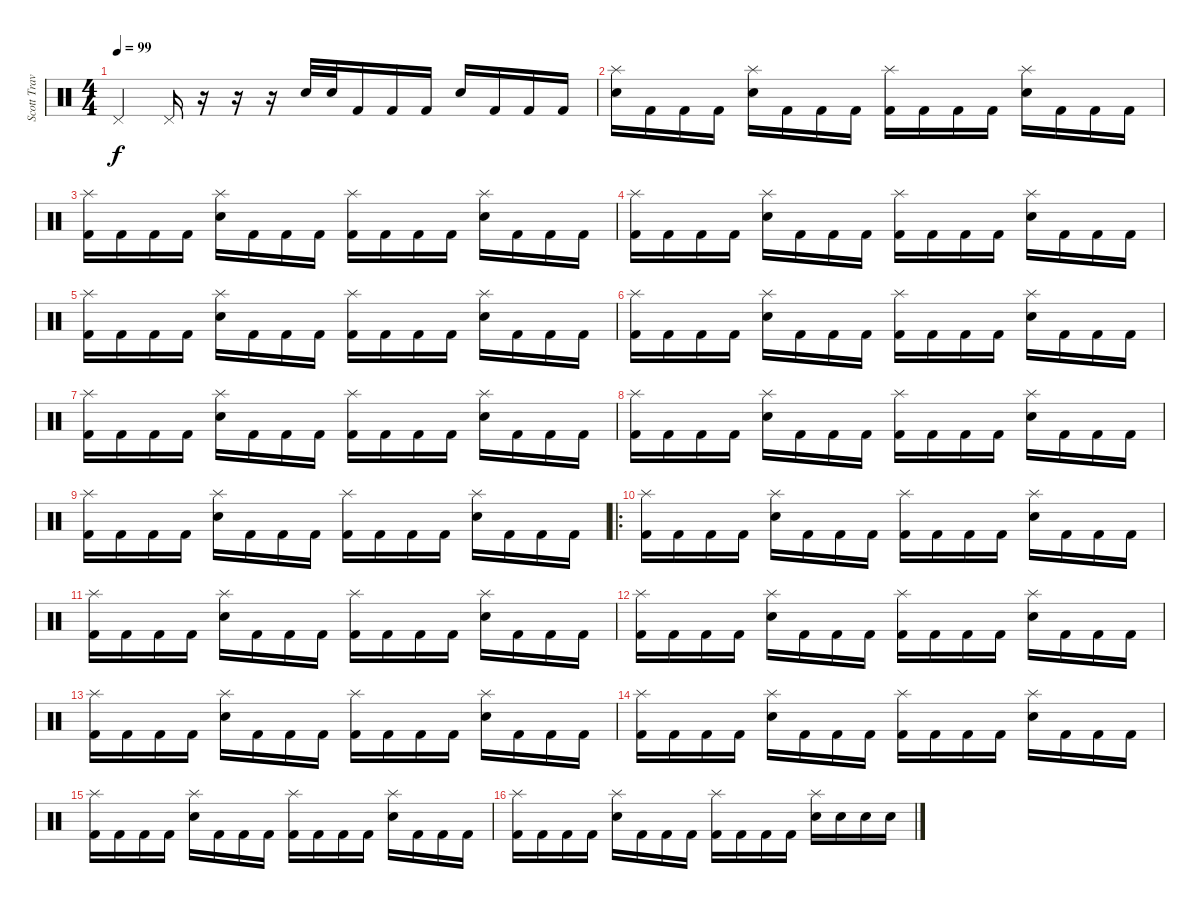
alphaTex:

\track ("Scott Travis" "Scott Trav") {instrument percussion}
\staff {score}
\articulation defaults
\ts (4 4)
\tempo 99
\clef neutral
\ks c "Pedal Hi-Hat (hit)".4{dy f} "Pedal Hi-Hat (hit)".16
r.16 r.16 r.16 "Electric Snare (hit)".32 "Electric Snare (hit)".32 "Kick (hit) 2".16 "Kick (hit) 2".16 "Kick (hit) 2".16 "Electric Snare (hit)".16 "Kick (hit) 2".16 "Kick (hit) 2".16 "Kick (hit) 2".16 |
("Splash (hit)" "Electric Snare (hit)").16 "Kick (hit) 2".16 "Kick (hit) 2".16 "Kick (hit) 2".16 ("Splash (hit)" "Electric Snare (hit)").16 "Kick (hit) 2".16 "Kick (hit) 2".16 "Kick (hit) 2".16 ("Splash (hit)" "Kick (hit) 2").16 "Kick (hit) 2".16 "Kick (hit) 2".16 "Kick (hit) 2".16 ("Splash (hit)" "Electric Snare (hit)").16 "Kick (hit) 2".16 "Kick (hit) 2".16 "Kick (hit) 2".16 |
("Splash (hit)" "Kick (hit) 2").16 "Kick (hit) 2".16 "Kick (hit) 2".16 "Kick (hit) 2".16 ("Splash (hit)" "Electric Snare (hit)").16 "Kick (hit) 2".16 "Kick (hit) 2".16 "Kick (hit) 2".16 ("Splash (hit)" "Kick (hit) 2").16 "Kick (hit) 2".16 "Kick (hit) 2".16 "Kick (hit) 2".16 ("Splash (hit)" "Electric Snare (hit)").16 "Kick (hit) 2".16 "Kick (hit) 2".16 "Kick (hit) 2".16 |
("Splash (hit)" "Kick (hit) 2").16 "Kick (hit) 2".16 "Kick (hit) 2".16 "Kick (hit) 2".16 ("Splash (hit)" "Electric Snare (hit)").16 "Kick (hit) 2".16 "Kick (hit) 2".16 "Kick (hit) 2".16 ("Splash (hit)" "Kick (hit) 2").16 "Kick (hit) 2".16 "Kick (hit) 2".16 "Kick (hit) 2".16 ("Splash (hit)" "Electric Snare (hit)").16 "Kick (hit) 2".16 "Kick (hit) 2".16 "Kick (hit) 2".16 |
("Splash (hit)" "Kick (hit) 2").16 "Kick (hit) 2".16 "Kick (hit) 2".16 "Kick (hit) 2".16 ("Splash (hit)" "Electric Snare (hit)").16 "Kick (hit) 2".16 "Kick (hit) 2".16 "Kick (hit) 2".16 ("Splash (hit)" "Kick (hit) 2").16 "Kick (hit) 2".16 "Kick (hit) 2".16 "Kick (hit) 2".16 ("Splash (hit)" "Electric Snare (hit)").16 "Kick (hit) 2".16 "Kick (hit) 2".16 "Kick (hit) 2".16 |
("Splash (hit)" "Kick (hit) 2").16 "Kick (hit) 2".16 "Kick (hit) 2".16 "Kick (hit) 2".16 ("Splash (hit)" "Electric Snare (hit)").16 "Kick (hit) 2".16 "Kick (hit) 2".16 "Kick (hit) 2".16 ("Splash (hit)" "Kick (hit) 2").16 "Kick (hit) 2".16 "Kick (hit) 2".16 "Kick (hit) 2".16 ("Splash (hit)" "Electric Snare (hit)").16 "Kick (hit) 2".16 "Kick (hit) 2".16 "Kick (hit) 2".16 |
("Splash (hit)" "Kick (hit) 2").16 "Kick (hit) 2".16 "Kick (hit) 2".16 "Kick (hit) 2".16 ("Splash (hit)" "Electric Snare (hit)").16 "Kick (hit) 2".16 "Kick (hit) 2".16 "Kick (hit) 2".16 ("Splash (hit)" "Kick (hit) 2").16 "Kick (hit) 2".16 "Kick (hit) 2".16 "Kick (hit) 2".16 ("Splash (hit)" "Electric Snare (hit)").16 "Kick (hit) 2".16 "Kick (hit) 2".16 "Kick (hit) 2".16 |
("Splash (hit)" "Kick (hit) 2").16 "Kick (hit) 2".16 "Kick (hit) 2".16 "Kick (hit) 2".16 ("Splash (hit)" "Electric Snare (hit)").16 "Kick (hit) 2".16 "Kick (hit) 2".16 "Kick (hit) 2".16 ("Splash (hit)" "Kick (hit) 2").16 "Kick (hit) 2".16 "Kick (hit) 2".16 "Kick (hit) 2".16 ("Splash (hit)" "Electric Snare (hit)").16 "Kick (hit) 2".16 "Kick (hit) 2".16 "Kick (hit) 2".16 |
("Splash (hit)" "Kick (hit) 2").16 "Kick (hit) 2".16 "Kick (hit) 2".16 "Kick (hit) 2".16 ("Splash (hit)" "Electric Snare (hit)").16 "Kick (hit) 2".16 "Kick (hit) 2".16 "Kick (hit) 2".16 ("Splash (hit)" "Kick (hit) 2").16 "Kick (hit) 2".16 "Kick (hit) 2".16 "Kick (hit) 2".16 ("Splash (hit)" "Electric Snare (hit)").16 "Kick (hit) 2".16 "Kick (hit) 2".16 "Kick (hit) 2".16 |
\ro
("Splash (hit)" "Kick (hit) 2").16 "Kick (hit) 2".16 "Kick (hit) 2".16 "Kick (hit) 2".16 ("Splash (hit)" "Electric Snare (hit)").16 "Kick (hit) 2".16 "Kick (hit) 2".16 "Kick (hit) 2".16 ("Splash (hit)" "Kick (hit) 2").16 "Kick (hit) 2".16 "Kick (hit) 2".16 "Kick (hit) 2".16 ("Splash (hit)" "Electric Snare (hit)").16 "Kick (hit) 2".16 "Kick (hit) 2".16 "Kick (hit) 2".16 |
("Splash (hit)" "Kick (hit) 2").16 "Kick (hit) 2".16 "Kick (hit) 2".16 "Kick (hit) 2".16 ("Splash (hit)" "Electric Snare (hit)").16 "Kick (hit) 2".16 "Kick (hit) 2".16 "Kick (hit) 2".16 ("Splash (hit)" "Kick (hit) 2").16 "Kick (hit) 2".16 "Kick (hit) 2".16 "Kick (hit) 2".16 ("Splash (hit)" "Electric Snare (hit)").16 "Kick (hit) 2".16 "Kick (hit) 2".16 "Kick (hit) 2".16 |
("Splash (hit)" "Kick (hit) 2").16 "Kick (hit) 2".16 "Kick (hit) 2".16 "Kick (hit) 2".16 ("Splash (hit)" "Electric Snare (hit)").16 "Kick (hit) 2".16 "Kick (hit) 2".16 "Kick (hit) 2".16 ("Splash (hit)" "Kick (hit) 2").16 "Kick (hit) 2".16 "Kick (hit) 2".16 "Kick (hit) 2".16 ("Splash (hit)" "Electric Snare (hit)").16 "Kick (hit) 2".16 "Kick (hit) 2".16 "Kick (hit) 2".16 |
("Splash (hit)" "Kick (hit) 2").16 "Kick (hit) 2".16 "Kick (hit) 2".16 "Kick (hit) 2".16 ("Splash (hit)" "Electric Snare (hit)").16 "Kick (hit) 2".16 "Kick (hit) 2".16 "Kick (hit) 2".16 ("Splash (hit)" "Kick (hit) 2").16 "Kick (hit) 2".16 "Kick (hit) 2".16 "Kick (hit) 2".16 ("Splash (hit)" "Electric Snare (hit)").16 "Kick (hit) 2".16 "Kick (hit) 2".16 "Kick (hit) 2".16 |
("Splash (hit)" "Kick (hit) 2").16 "Kick (hit) 2".16 "Kick (hit) 2".16 "Kick (hit) 2".16 ("Splash (hit)" "Electric Snare (hit)").16 "Kick (hit) 2".16 "Kick (hit) 2".16 "Kick (hit) 2".16 ("Splash (hit)" "Kick (hit) 2").16 "Kick (hit) 2".16 "Kick (hit) 2".16 "Kick (hit) 2".16 ("Splash (hit)" "Electric Snare (hit)").16 "Kick (hit) 2".16 "Kick (hit) 2".16 "Kick (hit) 2".16 |
("Splash (hit)" "Kick (hit) 2").16 "Kick (hit) 2".16 "Kick (hit) 2".16 "Kick (hit) 2".16 ("Splash (hit)" "Electric Snare (hit)").16 "Kick (hit) 2".16 "Kick (hit) 2".16 "Kick (hit) 2".16 ("Splash (hit)" "Kick (hit) 2").16 "Kick (hit) 2".16 "Kick (hit) 2".16 "Kick (hit) 2".16 ("Splash (hit)" "Electric Snare (hit)").16 "Kick (hit) 2".16 "Kick (hit) 2".16 "Kick (hit) 2".16 |
("Splash (hit)" "Kick (hit) 2").16 "Kick (hit) 2".16 "Kick (hit) 2".16 "Kick (hit) 2".16 ("Splash (hit)" "Electric Snare (hit)").16 "Kick (hit) 2".16 "Kick (hit) 2".16 "Kick (hit) 2".16 ("Splash (hit)" "Kick (hit) 2").16 "Kick (hit) 2".16 "Kick (hit) 2".16 "Kick (hit) 2".16 ("Splash (hit)" "Electric Snare (hit)").16 "Electric Snare (hit)".16 "Electric Snare (hit)".16 "Electric Snare (hit)".16
